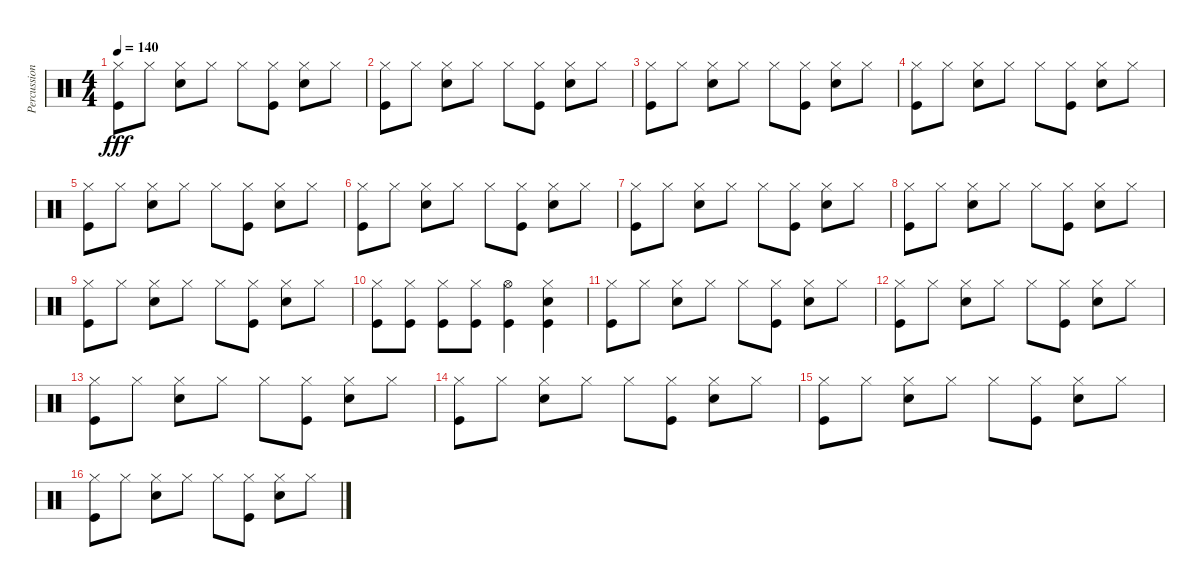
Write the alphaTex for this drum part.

\track ("Percussion" "Percussion") {instrument percussion}
\staff {score}
\articulation defaults
\ts (4 4)
\tempo 140
\clef neutral
\ks c
("Hi-Hat (closed)" "Kick (hit)").8{dy fff} "Hi-Hat (closed)".8 ("Hi-Hat (closed)" "Snare (hit) 2").8 "Hi-Hat (closed)".8 "Hi-Hat (closed)".8 ("Hi-Hat (closed)" "Kick (hit)").8 ("Hi-Hat (closed)" "Snare (hit) 2").8 "Hi-Hat (closed)".8 |
("Hi-Hat (closed)" "Kick (hit)").8 "Hi-Hat (closed)".8 ("Hi-Hat (closed)" "Snare (hit) 2").8 "Hi-Hat (closed)".8 "Hi-Hat (closed)".8 ("Hi-Hat (closed)" "Kick (hit)").8 ("Hi-Hat (closed)" "Snare (hit) 2").8 "Hi-Hat (closed)".8 |
("Hi-Hat (closed)" "Kick (hit)").8 "Hi-Hat (closed)".8 ("Hi-Hat (closed)" "Snare (hit) 2").8 "Hi-Hat (closed)".8 "Hi-Hat (closed)".8 ("Hi-Hat (closed)" "Kick (hit)").8 ("Hi-Hat (closed)" "Snare (hit) 2").8 "Hi-Hat (closed)".8 |
("Hi-Hat (closed)" "Kick (hit)").8 "Hi-Hat (closed)".8 ("Hi-Hat (closed)" "Snare (hit) 2").8 "Hi-Hat (closed)".8 "Hi-Hat (closed)".8 ("Hi-Hat (closed)" "Kick (hit)").8 ("Hi-Hat (closed)" "Snare (hit) 2").8 "Hi-Hat (closed)".8 |
("Hi-Hat (closed)" "Kick (hit)").8 "Hi-Hat (closed)".8 ("Hi-Hat (closed)" "Snare (hit) 2").8 "Hi-Hat (closed)".8 "Hi-Hat (closed)".8 ("Hi-Hat (closed)" "Kick (hit)").8 ("Hi-Hat (closed)" "Snare (hit) 2").8 "Hi-Hat (closed)".8 |
("Hi-Hat (closed)" "Kick (hit)").8 "Hi-Hat (closed)".8 ("Hi-Hat (closed)" "Snare (hit) 2").8 "Hi-Hat (closed)".8 "Hi-Hat (closed)".8 ("Hi-Hat (closed)" "Kick (hit)").8 ("Hi-Hat (closed)" "Snare (hit) 2").8 "Hi-Hat (closed)".8 |
("Hi-Hat (closed)" "Kick (hit)").8 "Hi-Hat (closed)".8 ("Hi-Hat (closed)" "Snare (hit) 2").8 "Hi-Hat (closed)".8 "Hi-Hat (closed)".8 ("Hi-Hat (closed)" "Kick (hit)").8 ("Hi-Hat (closed)" "Snare (hit) 2").8 "Hi-Hat (closed)".8 |
("Hi-Hat (closed)" "Kick (hit)").8 "Hi-Hat (closed)".8 ("Hi-Hat (closed)" "Snare (hit) 2").8 "Hi-Hat (closed)".8 "Hi-Hat (closed)".8 ("Hi-Hat (closed)" "Kick (hit)").8 ("Hi-Hat (closed)" "Snare (hit) 2").8 "Hi-Hat (closed)".8 |
("Hi-Hat (closed)" "Kick (hit)").8 "Hi-Hat (closed)".8 ("Hi-Hat (closed)" "Snare (hit) 2").8 "Hi-Hat (closed)".8 "Hi-Hat (closed)".8 ("Hi-Hat (closed)" "Kick (hit)").8 ("Hi-Hat (closed)" "Snare (hit) 2").8 "Hi-Hat (closed)".8 |
("Hi-Hat (closed)" "Kick (hit)").8 ("Hi-Hat (closed)" "Kick (hit)").8 ("Hi-Hat (closed)" "Kick (hit)").8 ("Hi-Hat (closed)" "Kick (hit)").8 ("Hi-Hat (open)" "Kick (hit)").4 ("Hi-Hat (closed)" "Snare (hit) 2" "Kick (hit)").4 |
("Hi-Hat (closed)" "Kick (hit)").8 "Hi-Hat (closed)".8 ("Hi-Hat (closed)" "Snare (hit) 2").8 "Hi-Hat (closed)".8 "Hi-Hat (closed)".8 ("Hi-Hat (closed)" "Kick (hit)").8 ("Hi-Hat (closed)" "Snare (hit) 2").8 "Hi-Hat (closed)".8 |
("Hi-Hat (closed)" "Kick (hit)").8 "Hi-Hat (closed)".8 ("Hi-Hat (closed)" "Snare (hit) 2").8 "Hi-Hat (closed)".8 "Hi-Hat (closed)".8 ("Hi-Hat (closed)" "Kick (hit)").8 ("Hi-Hat (closed)" "Snare (hit) 2").8 "Hi-Hat (closed)".8 |
("Hi-Hat (closed)" "Kick (hit)").8 "Hi-Hat (closed)".8 ("Hi-Hat (closed)" "Snare (hit) 2").8 "Hi-Hat (closed)".8 "Hi-Hat (closed)".8 ("Hi-Hat (closed)" "Kick (hit)").8 ("Hi-Hat (closed)" "Snare (hit) 2").8 "Hi-Hat (closed)".8 |
("Hi-Hat (closed)" "Kick (hit)").8 "Hi-Hat (closed)".8 ("Hi-Hat (closed)" "Snare (hit) 2").8 "Hi-Hat (closed)".8 "Hi-Hat (closed)".8 ("Hi-Hat (closed)" "Kick (hit)").8 ("Hi-Hat (closed)" "Snare (hit) 2").8 "Hi-Hat (closed)".8 |
("Hi-Hat (closed)" "Kick (hit)").8 "Hi-Hat (closed)".8 ("Hi-Hat (closed)" "Snare (hit) 2").8 "Hi-Hat (closed)".8 "Hi-Hat (closed)".8 ("Hi-Hat (closed)" "Kick (hit)").8 ("Hi-Hat (closed)" "Snare (hit) 2").8 "Hi-Hat (closed)".8 |
("Hi-Hat (closed)" "Kick (hit)").8 "Hi-Hat (closed)".8 ("Hi-Hat (closed)" "Snare (hit) 2").8 "Hi-Hat (closed)".8 "Hi-Hat (closed)".8 ("Hi-Hat (closed)" "Kick (hit)").8 ("Hi-Hat (closed)" "Snare (hit) 2").8 "Hi-Hat (closed)".8
